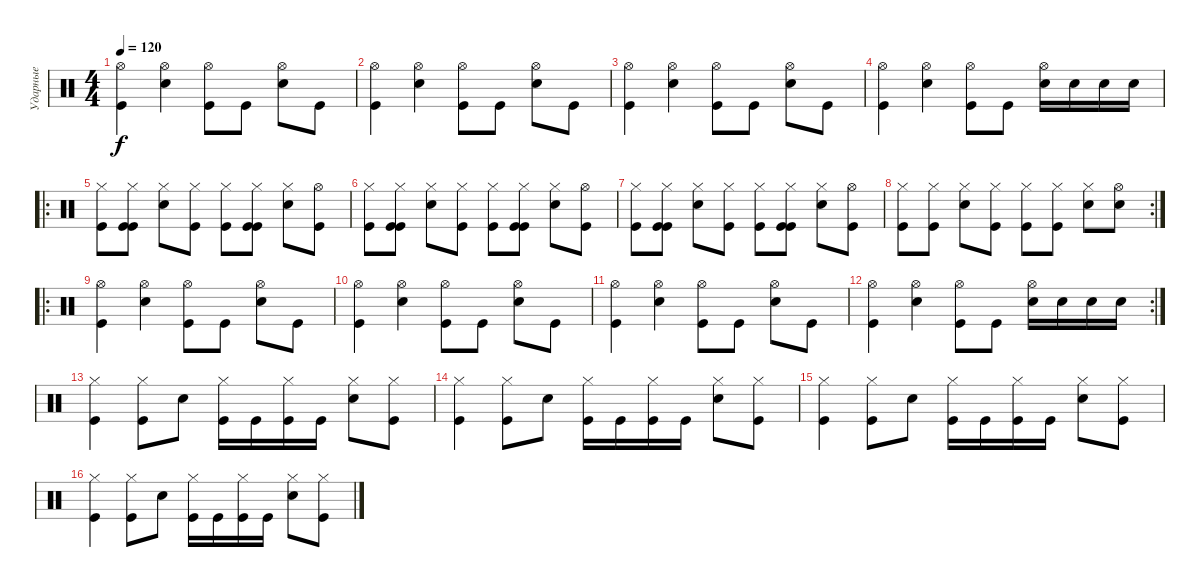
\track ("Ударные" "Ударные") {instrument percussion}
\staff {score}
\articulation defaults
\ts (4 4)
\tempo 120
\clef neutral
\ks c
("Kick (hit)" "Hi-Hat (open)").4{dy f} ("Electric Snare (hit)" "Hi-Hat (open)").4 ("Kick (hit)" "Hi-Hat (open)").8 "Kick (hit)".8 ("Electric Snare (hit)" "Hi-Hat (open)").8 "Kick (hit)".8 |
("Kick (hit)" "Hi-Hat (open)").4 ("Electric Snare (hit)" "Hi-Hat (open)").4 ("Kick (hit)" "Hi-Hat (open)").8 "Kick (hit)".8 ("Electric Snare (hit)" "Hi-Hat (open)").8 "Kick (hit)".8 |
("Kick (hit)" "Hi-Hat (open)").4 ("Electric Snare (hit)" "Hi-Hat (open)").4 ("Kick (hit)" "Hi-Hat (open)").8 "Kick (hit)".8 ("Electric Snare (hit)" "Hi-Hat (open)").8 "Kick (hit)".8 |
("Kick (hit)" "Hi-Hat (open)").4 ("Electric Snare (hit)" "Hi-Hat (open)").4 ("Kick (hit)" "Hi-Hat (open)").8 "Kick (hit)".8 ("Electric Snare (hit)" "Hi-Hat (open)").16 "Electric Snare (hit)".16 "Electric Snare (hit)".16 "Electric Snare (hit)".16 |
\ro
("Kick (hit)" "Hi-Hat (closed)").8 ("Kick (hit)" "Kick (hit)" "Hi-Hat (closed)").8 ("Electric Snare (hit)" "Hi-Hat (closed)").8 ("Kick (hit)" "Hi-Hat (closed)").8 ("Kick (hit)" "Hi-Hat (closed)").8 ("Kick (hit)" "Kick (hit)" "Hi-Hat (closed)").8 ("Electric Snare (hit)" "Hi-Hat (closed)").8 ("Kick (hit)" "Hi-Hat (open)").8 |
("Kick (hit)" "Hi-Hat (closed)").8 ("Kick (hit)" "Kick (hit)" "Hi-Hat (closed)").8 ("Electric Snare (hit)" "Hi-Hat (closed)").8 ("Kick (hit)" "Hi-Hat (closed)").8 ("Kick (hit)" "Hi-Hat (closed)").8 ("Kick (hit)" "Kick (hit)" "Hi-Hat (closed)").8 ("Electric Snare (hit)" "Hi-Hat (closed)").8 ("Kick (hit)" "Hi-Hat (open)").8 |
("Kick (hit)" "Hi-Hat (closed)").8 ("Kick (hit)" "Kick (hit)" "Hi-Hat (closed)").8 ("Electric Snare (hit)" "Hi-Hat (closed)").8 ("Kick (hit)" "Hi-Hat (closed)").8 ("Kick (hit)" "Hi-Hat (closed)").8 ("Kick (hit)" "Kick (hit)" "Hi-Hat (closed)").8 ("Electric Snare (hit)" "Hi-Hat (closed)").8 ("Kick (hit)" "Hi-Hat (open)").8 |
\rc 2
("Kick (hit)" "Hi-Hat (closed)").8 ("Kick (hit)" "Hi-Hat (closed)").8 ("Electric Snare (hit)" "Hi-Hat (closed)").8 ("Kick (hit)" "Hi-Hat (closed)").8 ("Kick (hit)" "Hi-Hat (closed)").8 ("Kick (hit)" "Hi-Hat (closed)").8 ("Electric Snare (hit)" "Hi-Hat (closed)").8 ("Electric Snare (hit)" "Hi-Hat (open)").8 |
\ro
("Kick (hit)" "Hi-Hat (open)").4 ("Electric Snare (hit)" "Hi-Hat (open)").4 ("Kick (hit)" "Hi-Hat (open)").8 "Kick (hit)".8 ("Electric Snare (hit)" "Hi-Hat (open)").8 "Kick (hit)".8 |
("Kick (hit)" "Hi-Hat (open)").4 ("Electric Snare (hit)" "Hi-Hat (open)").4 ("Kick (hit)" "Hi-Hat (open)").8 "Kick (hit)".8 ("Electric Snare (hit)" "Hi-Hat (open)").8 "Kick (hit)".8 |
("Kick (hit)" "Hi-Hat (open)").4 ("Electric Snare (hit)" "Hi-Hat (open)").4 ("Kick (hit)" "Hi-Hat (open)").8 "Kick (hit)".8 ("Electric Snare (hit)" "Hi-Hat (open)").8 "Kick (hit)".8 |
\rc 2
("Kick (hit)" "Hi-Hat (open)").4 ("Electric Snare (hit)" "Hi-Hat (open)").4 ("Kick (hit)" "Hi-Hat (open)").8 "Kick (hit)".8 ("Electric Snare (hit)" "Hi-Hat (open)").16 "Electric Snare (hit)".16 "Electric Snare (hit)".16 "Electric Snare (hit)".16 |
("Kick (hit)" "Hi-Hat (closed)").4 ("Kick (hit)" "Hi-Hat (closed)").8 "Electric Snare (hit)".8 ("Kick (hit)" "Hi-Hat (closed)").16 "Kick (hit)".16 ("Kick (hit)" "Hi-Hat (closed)").16 "Kick (hit)".16 ("Electric Snare (hit)" "Hi-Hat (closed)").8 ("Kick (hit)" "Hi-Hat (closed)").8 |
("Kick (hit)" "Hi-Hat (closed)").4 ("Kick (hit)" "Hi-Hat (closed)").8 "Electric Snare (hit)".8 ("Kick (hit)" "Hi-Hat (closed)").16 "Kick (hit)".16 ("Kick (hit)" "Hi-Hat (closed)").16 "Kick (hit)".16 ("Electric Snare (hit)" "Hi-Hat (closed)").8 ("Kick (hit)" "Hi-Hat (closed)").8 |
("Kick (hit)" "Hi-Hat (closed)").4 ("Kick (hit)" "Hi-Hat (closed)").8 "Electric Snare (hit)".8 ("Kick (hit)" "Hi-Hat (closed)").16 "Kick (hit)".16 ("Kick (hit)" "Hi-Hat (closed)").16 "Kick (hit)".16 ("Electric Snare (hit)" "Hi-Hat (closed)").8 ("Kick (hit)" "Hi-Hat (closed)").8 |
("Kick (hit)" "Hi-Hat (closed)").4 ("Kick (hit)" "Hi-Hat (closed)").8 "Electric Snare (hit)".8 ("Kick (hit)" "Hi-Hat (closed)").16 "Kick (hit)".16 ("Kick (hit)" "Hi-Hat (closed)").16 "Kick (hit)".16 ("Electric Snare (hit)" "Hi-Hat (closed)").8 ("Kick (hit)" "Hi-Hat (closed)").8
